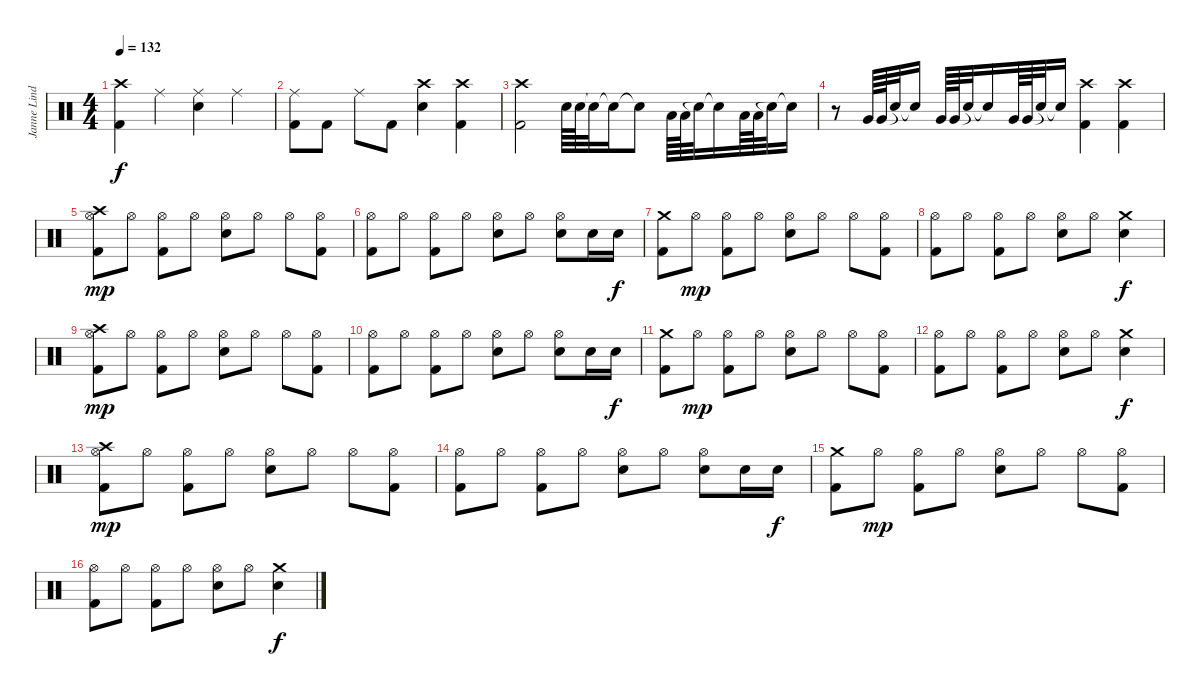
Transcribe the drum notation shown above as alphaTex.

\track ("Janne Lindh" "Janne Lind") {instrument percussion}
\staff {score}
\articulation defaults
\ts (4 4)
\tempo 132
\clef neutral
\ks c
("Kick (hit) 2" "Crash high (hit)").4{dy f} "Ride (middle)".4 ("Ride (middle)" "Snare (hit) 2").4 "Ride (middle)".4 |
("Kick (hit) 2" "Ride (middle)").8 "Kick (hit) 2".8 "Ride (middle)".8 "Kick (hit) 2".8 ("Crash high (hit)" "Snare (hit) 2").4 ("Kick (hit) 2" "Crash high (hit)").4 |
("Kick (hit) 2" "Crash high (hit)").2 "Snare (hit) 2".64 "Snare (hit) 2".64 "Snare (hit)"{t}.32 "Snare (hit)"{t}.16 "Snare (hit) 2"{t}.8 "Low Tom (hit)".64 "Low Tom (hit)".64 "Snare (hit)"{t}.32 "Snare (hit)"{t}.16 "Low Tom (hit)".64 "Low Tom (hit)".64 "Snare (hit)"{t}.32 "Snare (hit)"{t}.16 |
r.8 "Very Low Tom (hit)".64 "Very Low Tom (hit)".64 "Snare (hit)"{t}.32 "Snare (hit)"{t}.16 "Very Low Tom (hit)".64 "Very Low Tom (hit)".64 "Snare (hit)"{t}.32 "Snare (hit)"{t}.16 "Very Low Tom (hit)".64 "Very Low Tom (hit)".64 "Snare (hit)"{t}.32 "Snare (hit)"{t}.16 ("Kick (hit) 2" "Crash high (hit)").4 ("Kick (hit) 2" "Crash high (hit)").4 |
("Kick (hit) 2" "Hi-Hat (open)" "Crash high (hit)").8{dy mp} "Hi-Hat (open)".8 ("Kick (hit) 2" "Hi-Hat (open)").8 "Hi-Hat (open)".8 ("Hi-Hat (open)" "Snare (hit) 2").8 "Hi-Hat (open)".8 "Hi-Hat (open)".8 ("Kick (hit) 2" "Hi-Hat (open)").8 |
("Kick (hit) 2" "Hi-Hat (open)").8 "Hi-Hat (open)".8 ("Kick (hit) 2" "Hi-Hat (open)").8 "Hi-Hat (open)".8 ("Hi-Hat (open)" "Snare (hit) 2").8 "Hi-Hat (open)".8 ("Hi-Hat (open)" "Snare (hit) 2").8 "Snare (hit) 2".16 "Snare (hit) 2".16{dy f} |
("Kick (hit) 2" "Crash medium (hit)").8 "Hi-Hat (open)".8{dy mp} ("Kick (hit) 2" "Hi-Hat (open)").8 "Hi-Hat (open)".8 ("Hi-Hat (open)" "Snare (hit) 2").8 "Hi-Hat (open)".8 "Hi-Hat (open)".8 ("Kick (hit) 2" "Hi-Hat (open)").8 |
("Kick (hit) 2" "Hi-Hat (open)").8 "Hi-Hat (open)".8 ("Kick (hit) 2" "Hi-Hat (open)").8 "Hi-Hat (open)".8 ("Hi-Hat (open)" "Snare (hit) 2").8 "Hi-Hat (open)".8 ("Crash medium (hit)" "Snare (hit) 2").4{dy f} |
("Kick (hit) 2" "Hi-Hat (open)" "Crash high (hit)").8{dy mp} "Hi-Hat (open)".8 ("Kick (hit) 2" "Hi-Hat (open)").8 "Hi-Hat (open)".8 ("Hi-Hat (open)" "Snare (hit) 2").8 "Hi-Hat (open)".8 "Hi-Hat (open)".8 ("Kick (hit) 2" "Hi-Hat (open)").8 |
("Kick (hit) 2" "Hi-Hat (open)").8 "Hi-Hat (open)".8 ("Kick (hit) 2" "Hi-Hat (open)").8 "Hi-Hat (open)".8 ("Hi-Hat (open)" "Snare (hit) 2").8 "Hi-Hat (open)".8 ("Hi-Hat (open)" "Snare (hit) 2").8 "Snare (hit) 2".16 "Snare (hit) 2".16{dy f} |
("Kick (hit) 2" "Crash medium (hit)").8 "Hi-Hat (open)".8{dy mp} ("Kick (hit) 2" "Hi-Hat (open)").8 "Hi-Hat (open)".8 ("Hi-Hat (open)" "Snare (hit) 2").8 "Hi-Hat (open)".8 "Hi-Hat (open)".8 ("Kick (hit) 2" "Hi-Hat (open)").8 |
("Kick (hit) 2" "Hi-Hat (open)").8 "Hi-Hat (open)".8 ("Kick (hit) 2" "Hi-Hat (open)").8 "Hi-Hat (open)".8 ("Hi-Hat (open)" "Snare (hit) 2").8 "Hi-Hat (open)".8 ("Crash medium (hit)" "Snare (hit) 2").4{dy f} |
("Kick (hit) 2" "Hi-Hat (open)" "Crash high (hit)").8{dy mp} "Hi-Hat (open)".8 ("Kick (hit) 2" "Hi-Hat (open)").8 "Hi-Hat (open)".8 ("Hi-Hat (open)" "Snare (hit) 2").8 "Hi-Hat (open)".8 "Hi-Hat (open)".8 ("Kick (hit) 2" "Hi-Hat (open)").8 |
("Kick (hit) 2" "Hi-Hat (open)").8 "Hi-Hat (open)".8 ("Kick (hit) 2" "Hi-Hat (open)").8 "Hi-Hat (open)".8 ("Hi-Hat (open)" "Snare (hit) 2").8 "Hi-Hat (open)".8 ("Hi-Hat (open)" "Snare (hit) 2").8 "Snare (hit) 2".16 "Snare (hit) 2".16{dy f} |
("Kick (hit) 2" "Crash medium (hit)").8 "Hi-Hat (open)".8{dy mp} ("Kick (hit) 2" "Hi-Hat (open)").8 "Hi-Hat (open)".8 ("Hi-Hat (open)" "Snare (hit) 2").8 "Hi-Hat (open)".8 "Hi-Hat (open)".8 ("Kick (hit) 2" "Hi-Hat (open)").8 |
("Kick (hit) 2" "Hi-Hat (open)").8 "Hi-Hat (open)".8 ("Kick (hit) 2" "Hi-Hat (open)").8 "Hi-Hat (open)".8 ("Hi-Hat (open)" "Snare (hit) 2").8 "Hi-Hat (open)".8 ("Crash medium (hit)" "Snare (hit) 2").4{dy f}
